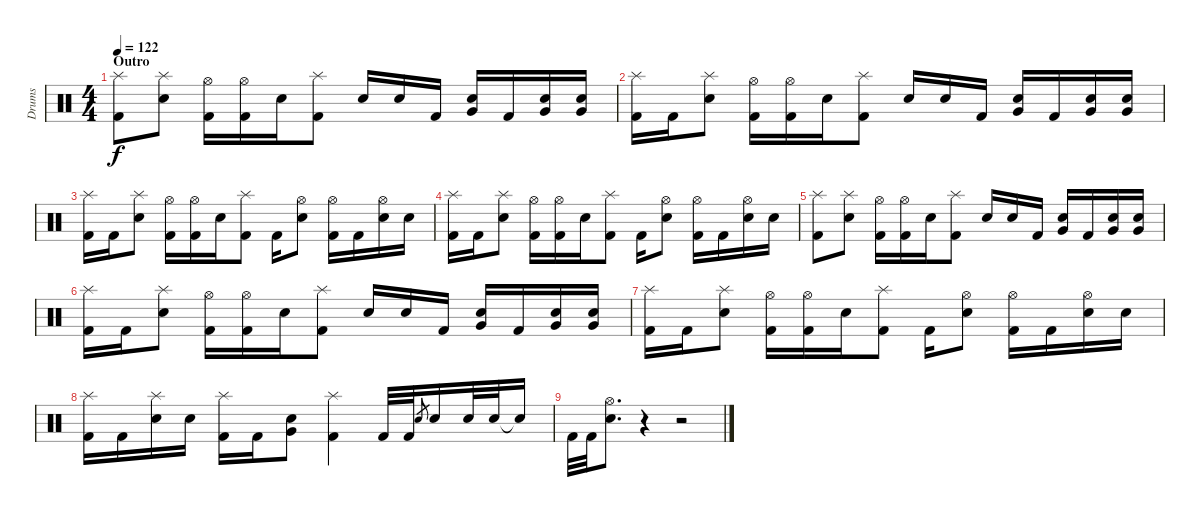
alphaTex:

\track ("Drums" "Drums") {instrument percussion}
\staff {score}
\articulation defaults
\ts (4 4)
\section ("" "Outro")
\tempo 122
\clef neutral
\ks c
("Splash (hit)" "Kick (hit) 2").8{dy f} ("Splash (hit)" "Electric Snare (hit)").8 ("Hi-Hat (open)" "Kick (hit) 2").16 ("Hi-Hat (open)" "Kick (hit) 2").16 "Electric Snare (hit)".16 ("Splash (hit)" "Kick (hit) 2").8 "Electric Snare (hit)".16 "Electric Snare (hit)".16 "Kick (hit) 2".16 ("Very Low Tom (hit)" "Electric Snare (hit)").16 "Kick (hit) 2".16 ("Very Low Tom (hit)" "Electric Snare (hit)").16 ("Very Low Tom (hit)" "Electric Snare (hit)").16 |
("Splash (hit)" "Kick (hit) 2").16 "Kick (hit) 2".16 ("Splash (hit)" "Electric Snare (hit)").8 ("Hi-Hat (open)" "Kick (hit) 2").16 ("Hi-Hat (open)" "Kick (hit) 2").16 "Electric Snare (hit)".16 ("Splash (hit)" "Kick (hit) 2").8 "Electric Snare (hit)".16 "Electric Snare (hit)".16 "Kick (hit) 2".16 ("Very Low Tom (hit)" "Electric Snare (hit)").16 "Kick (hit) 2".16 ("Very Low Tom (hit)" "Electric Snare (hit)").16 ("Very Low Tom (hit)" "Electric Snare (hit)").16 |
("Splash (hit)" "Kick (hit) 2").16 "Kick (hit) 2".16 ("Splash (hit)" "Electric Snare (hit)").8 ("Hi-Hat (open)" "Kick (hit) 2").16 ("Hi-Hat (open)" "Kick (hit) 2").16 "Electric Snare (hit)".16 ("Splash (hit)" "Kick (hit) 2").8 "Kick (hit) 2".16 ("Hi-Hat (open)" "Electric Snare (hit)").8 ("Hi-Hat (open)" "Kick (hit) 2").16 "Kick (hit) 2".16 ("Hi-Hat (open)" "Electric Snare (hit)").16 "Electric Snare (hit)".16 |
("Splash (hit)" "Kick (hit) 2").16 "Kick (hit) 2".16 ("Splash (hit)" "Electric Snare (hit)").8 ("Hi-Hat (open)" "Kick (hit) 2").16 ("Hi-Hat (open)" "Kick (hit) 2").16 "Electric Snare (hit)".16 ("Splash (hit)" "Kick (hit) 2").8 "Kick (hit) 2".16 ("Hi-Hat (open)" "Electric Snare (hit)").8 ("Hi-Hat (open)" "Kick (hit) 2").16 "Kick (hit) 2".16 ("Hi-Hat (open)" "Electric Snare (hit)").16 "Electric Snare (hit)".16 |
("Splash (hit)" "Kick (hit) 2").8 ("Splash (hit)" "Electric Snare (hit)").8 ("Hi-Hat (open)" "Kick (hit) 2").16 ("Hi-Hat (open)" "Kick (hit) 2").16 "Electric Snare (hit)".16 ("Splash (hit)" "Kick (hit) 2").8 "Electric Snare (hit)".16 "Electric Snare (hit)".16 "Kick (hit) 2".16 ("Very Low Tom (hit)" "Electric Snare (hit)").16 "Kick (hit) 2".16 ("Very Low Tom (hit)" "Electric Snare (hit)").16 ("Very Low Tom (hit)" "Electric Snare (hit)").16 |
("Splash (hit)" "Kick (hit) 2").16 "Kick (hit) 2".16 ("Splash (hit)" "Electric Snare (hit)").8 ("Hi-Hat (open)" "Kick (hit) 2").16 ("Hi-Hat (open)" "Kick (hit) 2").16 "Electric Snare (hit)".16 ("Splash (hit)" "Kick (hit) 2").8 "Electric Snare (hit)".16 "Electric Snare (hit)".16 "Kick (hit) 2".16 ("Very Low Tom (hit)" "Electric Snare (hit)").16 "Kick (hit) 2".16 ("Very Low Tom (hit)" "Electric Snare (hit)").16 ("Very Low Tom (hit)" "Electric Snare (hit)").16 |
("Splash (hit)" "Kick (hit) 2").16 "Kick (hit) 2".16 ("Splash (hit)" "Electric Snare (hit)").8 ("Hi-Hat (open)" "Kick (hit) 2").16 ("Hi-Hat (open)" "Kick (hit) 2").16 "Electric Snare (hit)".16 ("Splash (hit)" "Kick (hit) 2").8 "Kick (hit) 2".16 ("Hi-Hat (open)" "Electric Snare (hit)").8 ("Hi-Hat (open)" "Kick (hit) 2").16 "Kick (hit) 2".16 ("Hi-Hat (open)" "Electric Snare (hit)").16 "Electric Snare (hit)".16 |
("Splash (hit)" "Kick (hit) 2").16 "Kick (hit) 2".16 ("Splash (hit)" "Electric Snare (hit)").16 "Electric Snare (hit)".16 ("Splash (hit)" "Kick (hit) 2").16 "Kick (hit) 2".16 ("Very Low Tom (hit)" "Electric Snare (hit)").8 ("Splash (hit)" "Kick (hit) 2").4 "Kick (hit) 2".32 "Kick (hit) 2".32 "Electric Snare (hit)".8{gr} "Electric Snare (hit)".16 "Electric Snare (hit)".32 "Electric Snare (hit)".32 "Snare (hit)"{t}.16 |
"Kick (hit) 2".32 "Kick (hit) 2".32 ("Hi-Hat (open)" "Electric Snare (hit)").8{d} r.4 r.2
